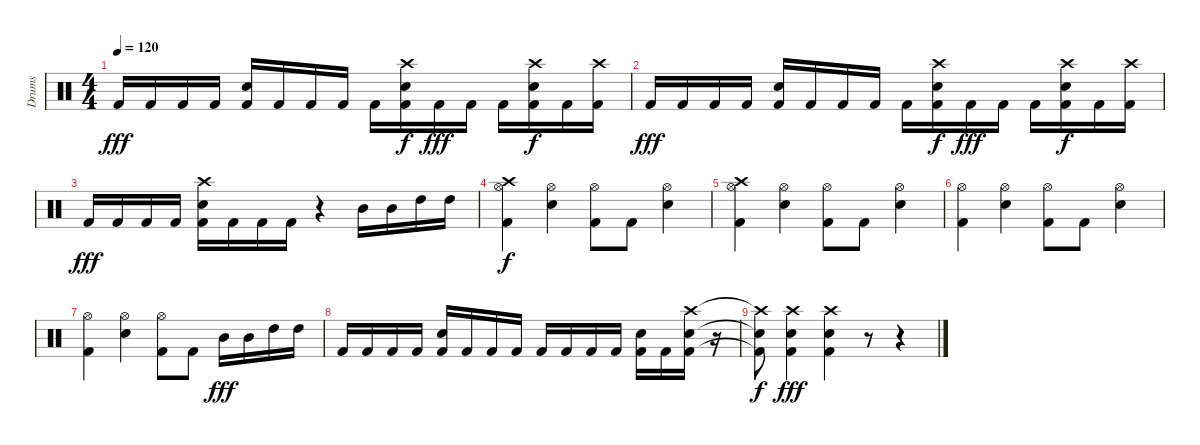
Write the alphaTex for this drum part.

\track ("Drums" "Drums") {instrument percussion}
\staff {score}
\articulation defaults
\ts (4 4)
\tempo 120
\clef neutral
\ks c "Kick (hit) 2".16{dy fff} "Kick (hit) 2".16 "Kick (hit) 2".16 "Kick (hit) 2".16
("Snare (hit) 2" "Kick (hit) 2").16 "Kick (hit) 2".16 "Kick (hit) 2".16 "Kick (hit) 2".16 "Kick (hit) 2".16 ("Crash high (hit)" "Snare (hit) 2" "Kick (hit) 2").16{dy f} "Kick (hit) 2".16{dy fff} "Kick (hit) 2".16 "Kick (hit) 2".16 ("Crash high (hit)" "Snare (hit) 2" "Kick (hit) 2").16{dy f} "Kick (hit) 2".16 ("Crash high (hit)" "Kick (hit) 2").16 |
"Kick (hit) 2".16{dy fff} "Kick (hit) 2".16 "Kick (hit) 2".16 "Kick (hit) 2".16 ("Snare (hit) 2" "Kick (hit) 2").16 "Kick (hit) 2".16 "Kick (hit) 2".16 "Kick (hit) 2".16 "Kick (hit) 2".16 ("Crash high (hit)" "Snare (hit) 2" "Kick (hit) 2").16{dy f} "Kick (hit) 2".16{dy fff} "Kick (hit) 2".16 "Kick (hit) 2".16 ("Crash high (hit)" "Snare (hit) 2" "Kick (hit) 2").16{dy f} "Kick (hit) 2".16 ("Crash high (hit)" "Kick (hit) 2").16 |
"Kick (hit) 2".16{dy fff} "Kick (hit) 2".16 "Kick (hit) 2".16 "Kick (hit) 2".16 ("Crash high (hit)" "Snare (hit) 2" "Kick (hit) 2").16 "Kick (hit) 2".16 "Kick (hit) 2".16 "Kick (hit) 2".16 r.4 "Mid Tom (hit)".16 "Mid Tom (hit)".16 "High Tom (hit)".16 "High Tom (hit)".16 |
("Kick (hit) 2" "Hi-Hat (open)" "Crash high (hit)").4{dy f} ("Hi-Hat (open)" "Snare (hit) 2").4 ("Hi-Hat (open)" "Kick (hit) 2").8 "Kick (hit) 2".8 ("Hi-Hat (open)" "Snare (hit) 2").4 |
("Kick (hit) 2" "Hi-Hat (open)" "Crash high (hit)").4 ("Hi-Hat (open)" "Snare (hit) 2").4 ("Hi-Hat (open)" "Kick (hit) 2").8 "Kick (hit) 2".8 ("Hi-Hat (open)" "Snare (hit) 2").4 |
("Kick (hit) 2" "Hi-Hat (open)").4 ("Hi-Hat (open)" "Snare (hit) 2").4 ("Hi-Hat (open)" "Kick (hit) 2").8 "Kick (hit) 2".8 ("Hi-Hat (open)" "Snare (hit) 2").4 |
("Kick (hit) 2" "Hi-Hat (open)").4 ("Hi-Hat (open)" "Snare (hit) 2").4 ("Hi-Hat (open)" "Kick (hit) 2").8 "Kick (hit) 2".8 "Mid Tom (hit)".16{dy fff} "Mid Tom (hit)".16 "High Tom (hit)".16 "High Tom (hit)".16 |
"Kick (hit) 2".16 "Kick (hit) 2".16 "Kick (hit) 2".16 "Kick (hit) 2".16 ("Snare (hit) 2" "Kick (hit) 2").16 "Kick (hit) 2".16 "Kick (hit) 2".16 "Kick (hit) 2".16 "Kick (hit) 2".16 "Kick (hit) 2".16 "Kick (hit) 2".16 "Kick (hit) 2".16 ("Snare (hit) 2" "Kick (hit) 2").16 "Kick (hit) 2".16 ("Crash high (hit)" "Snare (hit) 2" "Kick (hit) 2").16 r.16 |
("Crash high (hit)"{t} "Snare (hit) 2"{t} "Kick (hit) 2"{t}).8{dy f} ("Crash high (hit)" "Snare (hit) 2" "Kick (hit) 2").4{dy fff} ("Crash high (hit)" "Snare (hit) 2" "Kick (hit) 2").4 r.8 r.4
